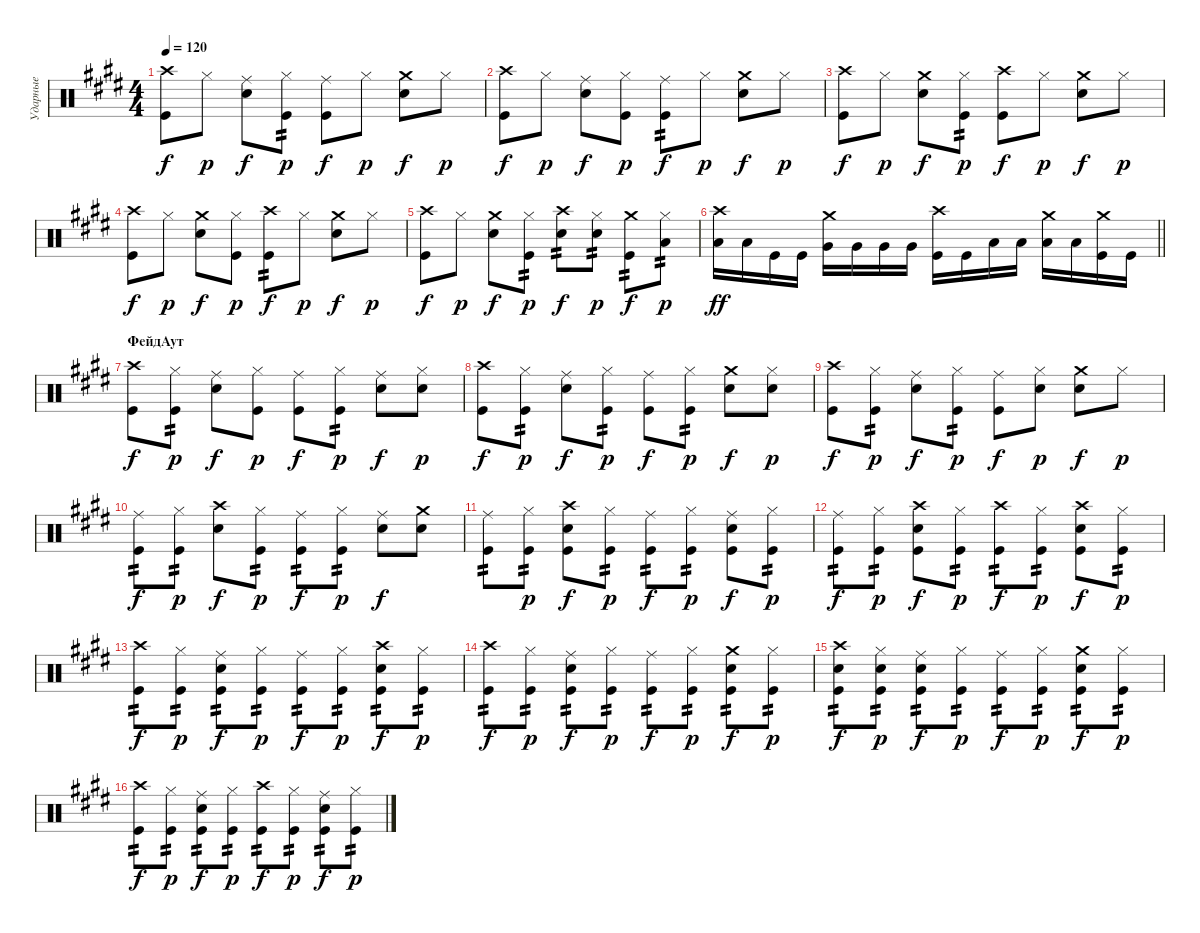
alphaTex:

\track ("Ударные" "Ударные") {instrument percussion}
\staff {score}
\articulation defaults
\ts (4 4)
\tempo 120
\clef neutral
\ks e
("Crash high (hit)" "Kick (hit)").8{dy f} "Hi-Hat (closed)".8{dy p} ("Ride (middle)" "Snare (hit) 2").8{dy f} ("Hi-Hat (closed)" "Kick (hit)").8{tp 2 dy p} ("Ride (middle)" "Kick (hit)").8{dy f} "Hi-Hat (closed)".8{dy p} ("Crash medium (hit)" "Snare (hit) 2").8{dy f} "Hi-Hat (closed)".8{dy p} |
("Crash high (hit)" "Kick (hit)").8{dy f} "Hi-Hat (closed)".8{dy p} ("Ride (middle)" "Snare (hit) 2").8{dy f} ("Hi-Hat (closed)" "Kick (hit)").8{dy p} ("Ride (middle)" "Kick (hit)").8{tp 2 dy f} "Hi-Hat (closed)".8{dy p} ("Crash medium (hit)" "Snare (hit) 2").8{dy f} "Hi-Hat (closed)".8{dy p} |
("Crash high (hit)" "Kick (hit)").8{dy f} "Hi-Hat (closed)".8{dy p} ("Crash medium (hit)" "Snare (hit) 2").8{dy f} ("Hi-Hat (closed)" "Kick (hit)").8{tp 2 dy p} ("Crash high (hit)" "Kick (hit)").8{dy f} "Hi-Hat (closed)".8{dy p} ("Crash medium (hit)" "Snare (hit) 2").8{dy f} "Hi-Hat (closed)".8{dy p} |
("Crash high (hit)" "Kick (hit)").8{dy f} "Hi-Hat (closed)".8{dy p} ("Crash medium (hit)" "Snare (hit) 2").8{dy f} ("Hi-Hat (closed)" "Kick (hit)").8{dy p} ("Crash high (hit)" "Kick (hit)").8{tp 2 dy f} "Hi-Hat (closed)".8{dy p} ("Crash medium (hit)" "Snare (hit) 2").8{dy f} "Hi-Hat (closed)".8{dy p} |
("Crash high (hit)" "Kick (hit)").8{dy f} "Hi-Hat (closed)".8{dy p} ("Crash medium (hit)" "Snare (hit) 2").8{dy f} ("Hi-Hat (closed)" "Kick (hit)").8{tp 2 dy p} ("Crash high (hit)" "Snare (hit) 2").8{tp 2 dy f} ("Hi-Hat (closed)" "Snare (hit) 2").8{tp 2 dy p} ("Crash medium (hit)" "Kick (hit)").8{tp 2 dy f} ("Hi-Hat (closed)" "Low Tom (hit)").8{tp 2 dy p} |
\barLineRight lightlight
("Crash high (hit)" "Low Tom (hit)").16{dy ff} "Low Tom (hit)".16 "Kick (hit)".16 "Kick (hit)".16 ("Crash medium (hit)" "Very Low Tom (hit)").16 "Very Low Tom (hit)".16 "Very Low Tom (hit)".16 "Very Low Tom (hit)".16 ("Crash high (hit)" "Kick (hit)").16 "Kick (hit)".16 "Low Floor Tom (hit)".16 "Low Floor Tom (hit)".16 ("Crash medium (hit)" "Low Floor Tom (hit)").16 "Low Floor Tom (hit)".16 ("Crash medium (hit)" "Kick (hit)").16 "Kick (hit)".16 |
\section ("" "ФейдАут")
("Crash high (hit)" "Kick (hit)").8{dy f} ("Hi-Hat (closed)" "Kick (hit)").8{tp 2 dy p} ("Ride (middle)" "Snare (hit) 2").8{dy f} ("Hi-Hat (closed)" "Kick (hit)").8{dy p} ("Ride (middle)" "Kick (hit)").8{dy f} ("Hi-Hat (closed)" "Kick (hit)").8{tp 2 dy p} ("Ride (middle)" "Snare (hit) 2").8{dy f} ("Hi-Hat (closed)" "Snare (hit) 2").8{dy p} |
("Crash high (hit)" "Kick (hit)").8{dy f} ("Hi-Hat (closed)" "Kick (hit)").8{tp 2 dy p} ("Ride (middle)" "Snare (hit) 2").8{dy f} ("Hi-Hat (closed)" "Kick (hit)").8{tp 2 dy p} ("Ride (middle)" "Kick (hit)").8{dy f} ("Hi-Hat (closed)" "Kick (hit)").8{tp 2 dy p} ("Crash medium (hit)" "Snare (hit) 2").8{dy f} ("Hi-Hat (closed)" "Snare (hit) 2").8{dy p} |
("Crash high (hit)" "Kick (hit)").8{dy f} ("Hi-Hat (closed)" "Kick (hit)").8{tp 2 dy p} ("Ride (middle)" "Snare (hit) 2").8{dy f} ("Hi-Hat (closed)" "Kick (hit)").8{tp 2 dy p} ("Ride (middle)" "Kick (hit)").8{dy f} ("Hi-Hat (closed)" "Snare (hit) 2").8{dy p} ("Crash medium (hit)" "Snare (hit) 2").8{dy f} "Hi-Hat (closed)".8{dy p} |
("Ride (middle)" "Kick (hit)").8{tp 2 dy f} ("Hi-Hat (closed)" "Kick (hit)").8{tp 2 dy p} ("Crash high (hit)" "Snare (hit) 2").8{dy f} ("Hi-Hat (closed)" "Kick (hit)").8{tp 2 dy p} ("Ride (middle)" "Kick (hit)").8{tp 2 dy f} ("Hi-Hat (closed)" "Kick (hit)").8{tp 2 dy p} ("Ride (middle)" "Snare (hit) 2").8{dy f} ("Crash medium (hit)" "Snare (hit) 2").8 |
("Ride (middle)" "Kick (hit)").8{tp 2} ("Hi-Hat (closed)" "Kick (hit)").8{tp 2 dy p} ("Crash high (hit)" "Snare (hit) 2" "Kick (hit)").8{dy f} ("Hi-Hat (closed)" "Kick (hit)").8{tp 2 dy p} ("Ride (middle)" "Kick (hit)").8{tp 2 dy f} ("Hi-Hat (closed)" "Kick (hit)").8{tp 2 dy p} ("Ride (middle)" "Snare (hit) 2" "Kick (hit)").8{dy f} ("Hi-Hat (closed)" "Kick (hit)").8{tp 2 dy p} |
("Ride (middle)" "Kick (hit)").8{tp 2 dy f} ("Hi-Hat (closed)" "Kick (hit)").8{tp 2 dy p} ("Crash high (hit)" "Snare (hit) 2" "Kick (hit)").8{dy f} ("Hi-Hat (closed)" "Kick (hit)").8{tp 2 dy p} ("Crash high (hit)" "Kick (hit)").8{tp 2 dy f} ("Hi-Hat (closed)" "Kick (hit)").8{tp 2 dy p} ("Crash high (hit)" "Snare (hit) 2" "Kick (hit)").8{dy f} ("Hi-Hat (closed)" "Kick (hit)").8{tp 2 dy p} |
("Crash high (hit)" "Kick (hit)").8{tp 2 dy f} ("Hi-Hat (closed)" "Kick (hit)").8{tp 2 dy p} ("Ride (middle)" "Snare (hit) 2" "Kick (hit)").8{tp 2 dy f} ("Hi-Hat (closed)" "Kick (hit)").8{tp 2 dy p} ("Ride (middle)" "Kick (hit)").8{tp 2 dy f} ("Hi-Hat (closed)" "Kick (hit)").8{tp 2 dy p} ("Crash high (hit)" "Snare (hit) 2" "Kick (hit)").8{tp 2 dy f} ("Hi-Hat (closed)" "Kick (hit)").8{tp 2 dy p} |
("Crash high (hit)" "Kick (hit)").8{tp 2 dy f} ("Hi-Hat (closed)" "Kick (hit)").8{tp 2 dy p} ("Ride (middle)" "Snare (hit) 2" "Kick (hit)").8{tp 2 dy f} ("Hi-Hat (closed)" "Kick (hit)").8{tp 2 dy p} ("Ride (middle)" "Kick (hit)").8{tp 2 dy f} ("Hi-Hat (closed)" "Kick (hit)").8{tp 2 dy p} ("Crash medium (hit)" "Snare (hit) 2" "Kick (hit)").8{tp 2 dy f} ("Hi-Hat (closed)" "Kick (hit)").8{tp 2 dy p} |
("Crash high (hit)" "Snare (hit) 2" "Kick (hit)").8{tp 2 dy f} ("Hi-Hat (closed)" "Snare (hit) 2" "Kick (hit)").8{tp 2 dy p} ("Ride (middle)" "Snare (hit) 2" "Kick (hit)").8{tp 2 dy f} ("Hi-Hat (closed)" "Kick (hit)").8{tp 2 dy p} ("Ride (middle)" "Kick (hit)").8{tp 2 dy f} ("Hi-Hat (closed)" "Kick (hit)").8{tp 2 dy p} ("Crash medium (hit)" "Snare (hit) 2" "Kick (hit)").8{tp 2 dy f} ("Hi-Hat (closed)" "Kick (hit)").8{tp 2 dy p} |
("Crash high (hit)" "Kick (hit)").8{tp 2 dy f} ("Hi-Hat (closed)" "Kick (hit)").8{tp 2 dy p} ("Ride (middle)" "Snare (hit) 2" "Kick (hit)").8{tp 2 dy f} ("Hi-Hat (closed)" "Kick (hit)").8{tp 2 dy p} ("Crash high (hit)" "Kick (hit)").8{tp 2 dy f} ("Hi-Hat (closed)" "Kick (hit)").8{tp 2 dy p} ("Ride (middle)" "Snare (hit) 2" "Kick (hit)").8{tp 2 dy f} ("Hi-Hat (closed)" "Kick (hit)").8{tp 2 dy p}
